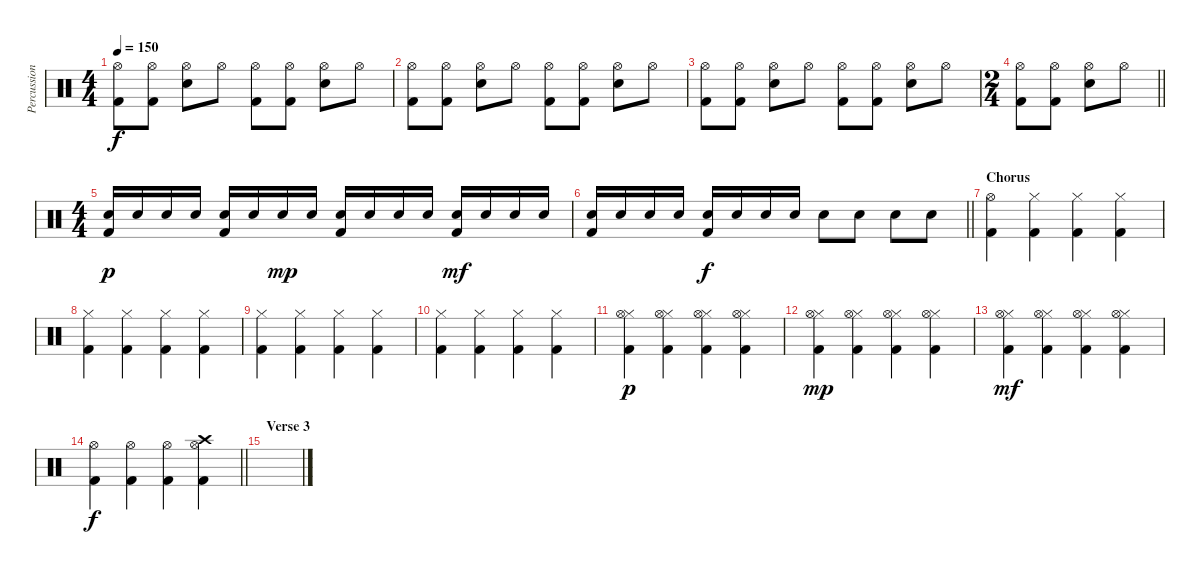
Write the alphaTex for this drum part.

\track ("Percussion" "Percussion") {instrument percussion}
\staff
\articulation defaults
\ts (4 4)
\tempo 150
\clef neutral
\ks c
("Hi-Hat (open)" "Kick (hit) 2").8{dy f} ("Hi-Hat (open)" "Kick (hit) 2").8 ("Hi-Hat (open)" "Snare (hit) 2").8 "Hi-Hat (open)".8 ("Hi-Hat (open)" "Kick (hit) 2").8 ("Hi-Hat (open)" "Kick (hit) 2").8 ("Hi-Hat (open)" "Snare (hit) 2").8 "Hi-Hat (open)".8 |
("Hi-Hat (open)" "Kick (hit) 2").8 ("Hi-Hat (open)" "Kick (hit) 2").8 ("Hi-Hat (open)" "Snare (hit) 2").8 "Hi-Hat (open)".8 ("Hi-Hat (open)" "Kick (hit) 2").8 ("Hi-Hat (open)" "Kick (hit) 2").8 ("Hi-Hat (open)" "Snare (hit) 2").8 "Hi-Hat (open)".8 |
("Hi-Hat (open)" "Kick (hit) 2").8 ("Hi-Hat (open)" "Kick (hit) 2").8 ("Hi-Hat (open)" "Snare (hit) 2").8 "Hi-Hat (open)".8 ("Hi-Hat (open)" "Kick (hit) 2").8 ("Hi-Hat (open)" "Kick (hit) 2").8 ("Hi-Hat (open)" "Snare (hit) 2").8 "Hi-Hat (open)".8 |
\ts (2 4)
\barLineRight lightlight
("Hi-Hat (open)" "Kick (hit) 2").8 ("Hi-Hat (open)" "Kick (hit) 2").8 ("Hi-Hat (open)" "Snare (hit) 2").8 "Hi-Hat (open)".8 |
\ts (4 4)
("Snare (hit) 2" "Kick (hit) 2").16{dy p} "Snare (hit) 2".16 "Snare (hit) 2".16 "Snare (hit) 2".16 ("Snare (hit) 2" "Kick (hit) 2").16 "Snare (hit) 2".16 "Snare (hit) 2".16{dy mp} "Snare (hit) 2".16 ("Snare (hit) 2" "Kick (hit) 2").16 "Snare (hit) 2".16 "Snare (hit) 2".16 "Snare (hit) 2".16 ("Snare (hit) 2" "Kick (hit) 2").16{dy mf} "Snare (hit) 2".16 "Snare (hit) 2".16 "Snare (hit) 2".16 |
\barLineRight lightlight
("Snare (hit) 2" "Kick (hit) 2").16 "Snare (hit) 2".16 "Snare (hit) 2".16 "Snare (hit) 2".16 ("Snare (hit) 2" "Kick (hit) 2").16{dy f} "Snare (hit) 2".16 "Snare (hit) 2".16 "Snare (hit) 2".16 "Snare (hit) 2".8 "Snare (hit) 2".8 "Snare (hit) 2".8 "Snare (hit) 2".8 |
\section ("" "Chorus")
("Hi-Hat (open)" "Kick (hit) 2").4 ("Hi-Hat (closed)" "Kick (hit) 2").4 ("Hi-Hat (closed)" "Kick (hit) 2").4 ("Hi-Hat (closed)" "Kick (hit) 2").4 |
("Hi-Hat (closed)" "Kick (hit) 2").4 ("Hi-Hat (closed)" "Kick (hit) 2").4 ("Hi-Hat (closed)" "Kick (hit) 2").4 ("Hi-Hat (closed)" "Kick (hit) 2").4 |
("Hi-Hat (closed)" "Kick (hit) 2").4 ("Hi-Hat (closed)" "Kick (hit) 2").4 ("Hi-Hat (closed)" "Kick (hit) 2").4 ("Hi-Hat (closed)" "Kick (hit) 2").4 |
("Hi-Hat (closed)" "Kick (hit) 2").4 ("Hi-Hat (closed)" "Kick (hit) 2").4 ("Hi-Hat (closed)" "Kick (hit) 2").4 ("Hi-Hat (closed)" "Kick (hit) 2").4 |
("Hi-Hat (closed)" "Hi-Hat (open)" "Kick (hit) 2").4{dy p} ("Hi-Hat (closed)" "Hi-Hat (open)" "Kick (hit) 2").4 ("Hi-Hat (closed)" "Hi-Hat (open)" "Kick (hit) 2").4 ("Hi-Hat (closed)" "Hi-Hat (open)" "Kick (hit) 2").4 |
("Hi-Hat (closed)" "Hi-Hat (open)" "Kick (hit) 2").4{dy mp} ("Hi-Hat (closed)" "Hi-Hat (open)" "Kick (hit) 2").4 ("Hi-Hat (closed)" "Hi-Hat (open)" "Kick (hit) 2").4 ("Hi-Hat (closed)" "Hi-Hat (open)" "Kick (hit) 2").4 |
("Hi-Hat (closed)" "Hi-Hat (open)" "Kick (hit) 2").4{dy mf} ("Hi-Hat (closed)" "Hi-Hat (open)" "Kick (hit) 2").4 ("Hi-Hat (closed)" "Hi-Hat (open)" "Kick (hit) 2").4 ("Hi-Hat (closed)" "Hi-Hat (open)" "Kick (hit) 2").4 |
\barLineRight lightlight
("Hi-Hat (open)" "Kick (hit) 2").4{dy f} ("Hi-Hat (open)" "Kick (hit) 2").4 ("Hi-Hat (open)" "Kick (hit) 2").4 ("Crash high (hit)" "Hi-Hat (open)" "Kick (hit) 2").4 |
\section ("" "Verse 3")
